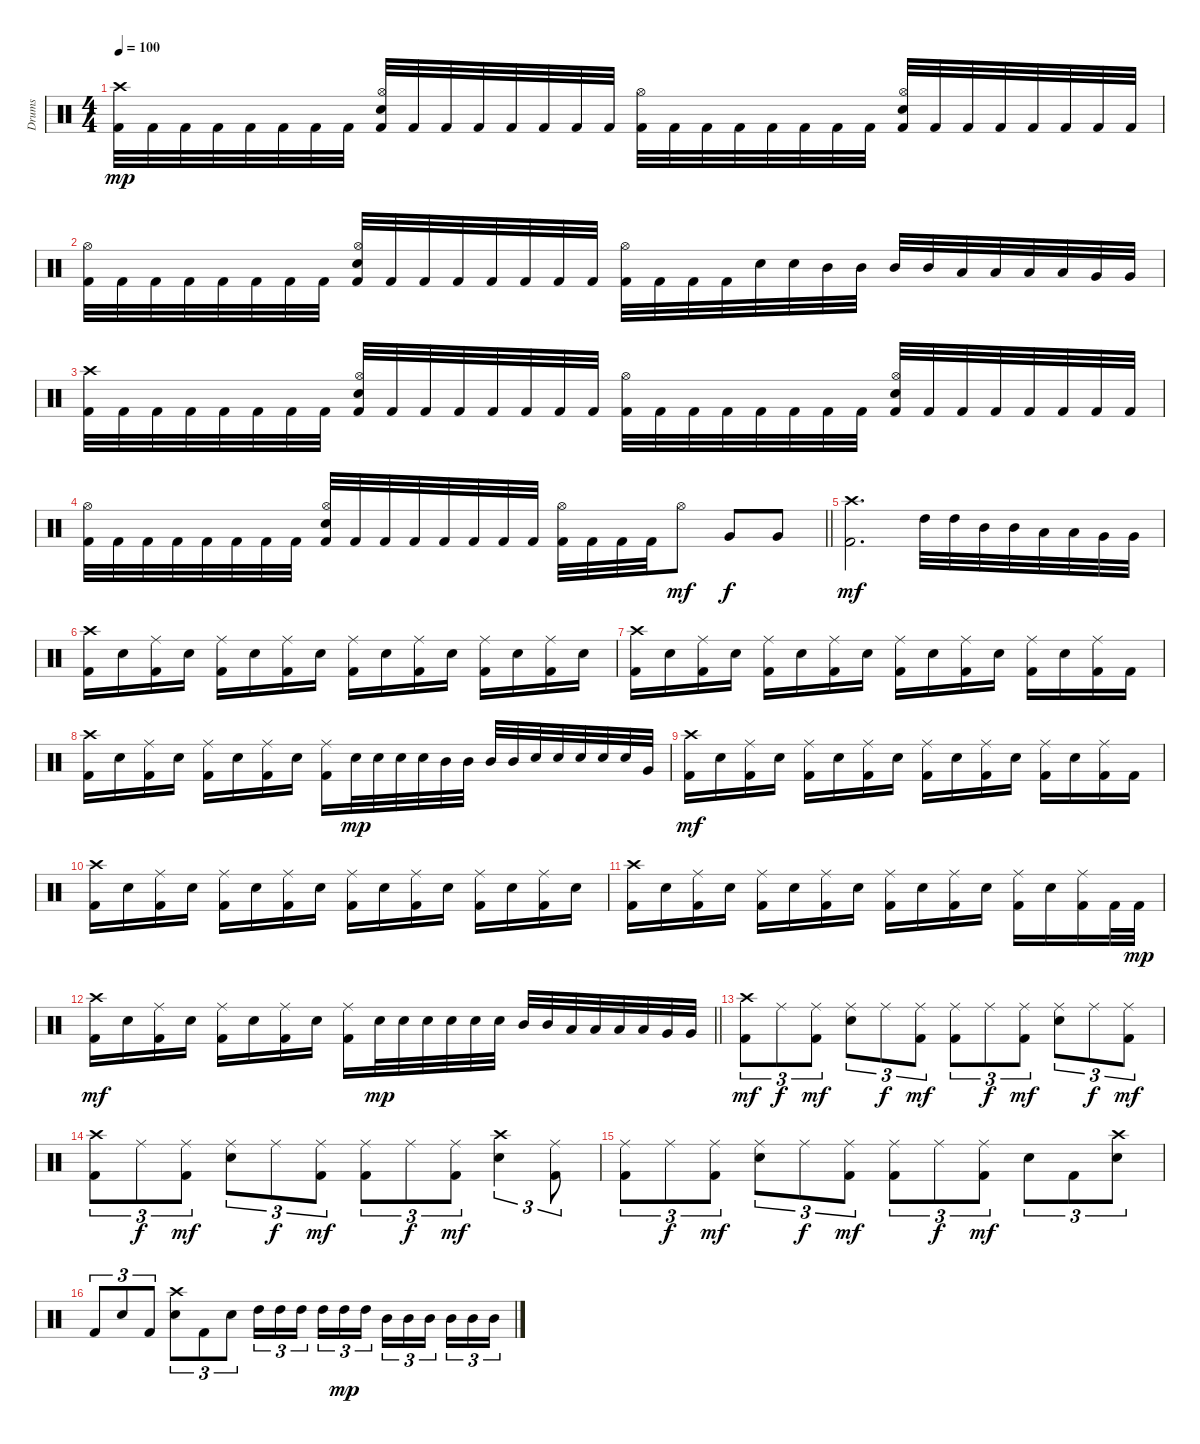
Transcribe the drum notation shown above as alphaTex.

\track ("Drums" "Drums") {instrument percussion}
\staff {score}
\articulation defaults
\ts (4 4)
\tempo 100
\clef neutral
\ks c
("Crash high (hit)" "Kick (hit) 2").32{dy mp} "Kick (hit) 2".32 "Kick (hit) 2".32 "Kick (hit) 2".32 "Kick (hit) 2".32 "Kick (hit) 2".32 "Kick (hit) 2".32 "Kick (hit) 2".32 ("Hi-Hat (open)" "Snare (hit) 2" "Kick (hit) 2").32 "Kick (hit) 2".32 "Kick (hit) 2".32 "Kick (hit) 2".32 "Kick (hit) 2".32 "Kick (hit) 2".32 "Kick (hit) 2".32 "Kick (hit) 2".32 ("Hi-Hat (open)" "Kick (hit) 2").32 "Kick (hit) 2".32 "Kick (hit) 2".32 "Kick (hit) 2".32 "Kick (hit) 2".32 "Kick (hit) 2".32 "Kick (hit) 2".32 "Kick (hit) 2".32 ("Hi-Hat (open)" "Snare (hit) 2" "Kick (hit) 2").32 "Kick (hit) 2".32 "Kick (hit) 2".32 "Kick (hit) 2".32 "Kick (hit) 2".32 "Kick (hit) 2".32 "Kick (hit) 2".32 "Kick (hit) 2".32 |
("Hi-Hat (open)" "Kick (hit) 2").32 "Kick (hit) 2".32 "Kick (hit) 2".32 "Kick (hit) 2".32 "Kick (hit) 2".32 "Kick (hit) 2".32 "Kick (hit) 2".32 "Kick (hit) 2".32 ("Hi-Hat (open)" "Snare (hit) 2" "Kick (hit) 2").32 "Kick (hit) 2".32 "Kick (hit) 2".32 "Kick (hit) 2".32 "Kick (hit) 2".32 "Kick (hit) 2".32 "Kick (hit) 2".32 "Kick (hit) 2".32 ("Hi-Hat (open)" "Kick (hit) 2").32 "Kick (hit) 2".32 "Kick (hit) 2".32 "Kick (hit) 2".32 "Snare (hit) 2".32 "Snare (hit) 2".32 "Mid Tom (hit)".32 "Mid Tom (hit)".32 "Mid Tom (hit)".32 "Mid Tom (hit)".32 "Low Tom (hit)".32 "Low Tom (hit)".32 "Low Tom (hit)".32 "Low Tom (hit)".32 "Very Low Tom (hit)".32 "Very Low Tom (hit)".32 |
("Crash high (hit)" "Kick (hit) 2").32 "Kick (hit) 2".32 "Kick (hit) 2".32 "Kick (hit) 2".32 "Kick (hit) 2".32 "Kick (hit) 2".32 "Kick (hit) 2".32 "Kick (hit) 2".32 ("Hi-Hat (open)" "Snare (hit) 2" "Kick (hit) 2").32 "Kick (hit) 2".32 "Kick (hit) 2".32 "Kick (hit) 2".32 "Kick (hit) 2".32 "Kick (hit) 2".32 "Kick (hit) 2".32 "Kick (hit) 2".32 ("Hi-Hat (open)" "Kick (hit) 2").32 "Kick (hit) 2".32 "Kick (hit) 2".32 "Kick (hit) 2".32 "Kick (hit) 2".32 "Kick (hit) 2".32 "Kick (hit) 2".32 "Kick (hit) 2".32 ("Hi-Hat (open)" "Snare (hit) 2" "Kick (hit) 2").32 "Kick (hit) 2".32 "Kick (hit) 2".32 "Kick (hit) 2".32 "Kick (hit) 2".32 "Kick (hit) 2".32 "Kick (hit) 2".32 "Kick (hit) 2".32 |
\barLineRight lightlight
("Hi-Hat (open)" "Kick (hit) 2").32 "Kick (hit) 2".32 "Kick (hit) 2".32 "Kick (hit) 2".32 "Kick (hit) 2".32 "Kick (hit) 2".32 "Kick (hit) 2".32 "Kick (hit) 2".32 ("Hi-Hat (open)" "Snare (hit) 2" "Kick (hit) 2").32 "Kick (hit) 2".32 "Kick (hit) 2".32 "Kick (hit) 2".32 "Kick (hit) 2".32 "Kick (hit) 2".32 "Kick (hit) 2".32 "Kick (hit) 2".32 ("Hi-Hat (open)" "Kick (hit) 2").32 "Kick (hit) 2".32 "Kick (hit) 2".32 "Kick (hit) 2".32 "Hi-Hat (open)".8{dy mf} "Very Low Tom (hit)".8{dy f} "Very Low Tom (hit)".8 |
("Crash high (hit)" "Kick (hit) 2").2{d dy mf} "High Tom (hit)".32 "High Tom (hit)".32 "Mid Tom (hit)".32 "Mid Tom (hit)".32 "Low Tom (hit)".32 "Low Tom (hit)".32 "Very Low Tom (hit)".32 "Very Low Tom (hit)".32 |
("Crash high (hit)" "Kick (hit) 2").16 "Snare (hit) 2".16 ("Ride (middle)" "Kick (hit) 2").16 "Snare (hit) 2".16 ("Ride (middle)" "Kick (hit) 2").16 "Snare (hit) 2".16 ("Ride (middle)" "Kick (hit) 2").16 "Snare (hit) 2".16 ("Ride (middle)" "Kick (hit) 2").16 "Snare (hit) 2".16 ("Ride (middle)" "Kick (hit) 2").16 "Snare (hit) 2".16 ("Ride (middle)" "Kick (hit) 2").16 "Snare (hit) 2".16 ("Ride (middle)" "Kick (hit) 2").16 "Snare (hit) 2".16 |
("Crash high (hit)" "Kick (hit) 2").16 "Snare (hit) 2".16 ("Ride (middle)" "Kick (hit) 2").16 "Snare (hit) 2".16 ("Ride (middle)" "Kick (hit) 2").16 "Snare (hit) 2".16 ("Ride (middle)" "Kick (hit) 2").16 "Snare (hit) 2".16 ("Ride (middle)" "Kick (hit) 2").16 "Snare (hit) 2".16 ("Ride (middle)" "Kick (hit) 2").16 "Snare (hit) 2".16 ("Ride (middle)" "Kick (hit) 2").16 "Snare (hit) 2".16 ("Ride (middle)" "Kick (hit) 2").16 "Kick (hit) 2".16 |
("Crash high (hit)" "Kick (hit) 2").16 "Snare (hit) 2".16 ("Ride (middle)" "Kick (hit) 2").16 "Snare (hit) 2".16 ("Ride (middle)" "Kick (hit) 2").16 "Snare (hit) 2".16 ("Ride (middle)" "Kick (hit) 2").16 "Snare (hit) 2".16 ("Ride (middle)" "Kick (hit) 2").16 "Snare (hit) 2".32{dy mp} "Snare (hit) 2".32 "Snare (hit) 2".32 "Snare (hit) 2".32 "Mid Tom (hit)".32 "Mid Tom (hit)".32 "Mid Tom (hit)".32 "Mid Tom (hit)".32 "Snare (hit) 2".32 "Snare (hit) 2".32 "Snare (hit) 2".32 "Snare (hit) 2".32 "Snare (hit) 2".32 "Very Low Tom (hit)".32 |
("Crash high (hit)" "Kick (hit) 2").16{dy mf} "Snare (hit) 2".16 ("Ride (middle)" "Kick (hit) 2").16 "Snare (hit) 2".16 ("Ride (middle)" "Kick (hit) 2").16 "Snare (hit) 2".16 ("Ride (middle)" "Kick (hit) 2").16 "Snare (hit) 2".16 ("Ride (middle)" "Kick (hit) 2").16 "Snare (hit) 2".16 ("Ride (middle)" "Kick (hit) 2").16 "Snare (hit) 2".16 ("Ride (middle)" "Kick (hit) 2").16 "Snare (hit) 2".16 ("Ride (middle)" "Kick (hit) 2").16 "Kick (hit) 2".16 |
("Crash high (hit)" "Kick (hit) 2").16 "Snare (hit) 2".16 ("Ride (middle)" "Kick (hit) 2").16 "Snare (hit) 2".16 ("Ride (middle)" "Kick (hit) 2").16 "Snare (hit) 2".16 ("Ride (middle)" "Kick (hit) 2").16 "Snare (hit) 2".16 ("Ride (middle)" "Kick (hit) 2").16 "Snare (hit) 2".16 ("Ride (middle)" "Kick (hit) 2").16 "Snare (hit) 2".16 ("Ride (middle)" "Kick (hit) 2").16 "Snare (hit) 2".16 ("Ride (middle)" "Kick (hit) 2").16 "Snare (hit) 2".16 |
("Crash high (hit)" "Kick (hit) 2").16 "Snare (hit) 2".16 ("Ride (middle)" "Kick (hit) 2").16 "Snare (hit) 2".16 ("Ride (middle)" "Kick (hit) 2").16 "Snare (hit) 2".16 ("Ride (middle)" "Kick (hit) 2").16 "Snare (hit) 2".16 ("Ride (middle)" "Kick (hit) 2").16 "Snare (hit) 2".16 ("Ride (middle)" "Kick (hit) 2").16 "Snare (hit) 2".16 ("Ride (middle)" "Kick (hit) 2").16 "Snare (hit) 2".16 ("Ride (middle)" "Kick (hit) 2").16 "Kick (hit) 2".32 "Kick (hit) 2".32{dy mp} |
\barLineRight lightlight
("Crash high (hit)" "Kick (hit) 2").16{dy mf} "Snare (hit) 2".16 ("Ride (middle)" "Kick (hit) 2").16 "Snare (hit) 2".16 ("Ride (middle)" "Kick (hit) 2").16 "Snare (hit) 2".16 ("Ride (middle)" "Kick (hit) 2").16 "Snare (hit) 2".16 ("Ride (middle)" "Kick (hit) 2").16 "Snare (hit) 2".32{dy mp} "Snare (hit) 2".32 "Snare (hit) 2".32 "Snare (hit) 2".32 "Snare (hit) 2".32 "Snare (hit) 2".32 "Mid Tom (hit)".32 "Mid Tom (hit)".32 "Low Tom (hit)".32 "Low Tom (hit)".32 "Low Tom (hit)".32 "Low Tom (hit)".32 "Very Low Tom (hit)".32 "Very Low Tom (hit)".32 |
("Crash high (hit)" "Kick (hit) 2").8{tu (3 2) dy mf} "Ride (middle)".8{tu (3 2) dy f} ("Ride (middle)" "Kick (hit) 2").8{tu (3 2) dy mf} ("Ride (middle)" "Snare (hit) 2").8{tu (3 2)} "Ride (middle)".8{tu (3 2) dy f} ("Ride (middle)" "Kick (hit) 2").8{tu (3 2) dy mf} ("Ride (middle)" "Kick (hit) 2").8{tu (3 2)} "Ride (middle)".8{tu (3 2) dy f} ("Ride (middle)" "Kick (hit) 2").8{tu (3 2) dy mf} ("Ride (middle)" "Snare (hit) 2").8{tu (3 2)} "Ride (middle)".8{tu (3 2) dy f} ("Ride (middle)" "Kick (hit) 2").8{tu (3 2) dy mf} |
("Crash high (hit)" "Kick (hit) 2").8{tu (3 2)} "Ride (middle)".8{tu (3 2) dy f} ("Ride (middle)" "Kick (hit) 2").8{tu (3 2) dy mf} ("Ride (middle)" "Snare (hit) 2").8{tu (3 2)} "Ride (middle)".8{tu (3 2) dy f} ("Ride (middle)" "Kick (hit) 2").8{tu (3 2) dy mf} ("Ride (middle)" "Kick (hit) 2").8{tu (3 2)} "Ride (middle)".8{tu (3 2) dy f} ("Ride (middle)" "Kick (hit) 2").8{tu (3 2) dy mf} ("Crash high (hit)" "Snare (hit) 2").4{tu (3 2)} ("Ride (middle)" "Kick (hit) 2").8{tu (3 2)} |
("Ride (middle)" "Kick (hit) 2").8{tu (3 2)} "Ride (middle)".8{tu (3 2) dy f} ("Ride (middle)" "Kick (hit) 2").8{tu (3 2) dy mf} ("Ride (middle)" "Snare (hit) 2").8{tu (3 2)} "Ride (middle)".8{tu (3 2) dy f} ("Ride (middle)" "Kick (hit) 2").8{tu (3 2) dy mf} ("Ride (middle)" "Kick (hit) 2").8{tu (3 2)} "Ride (middle)".8{tu (3 2) dy f} ("Ride (middle)" "Kick (hit) 2").8{tu (3 2) dy mf} "Snare (hit) 2".8{tu (3 2)} "Kick (hit) 2".8{tu (3 2)} ("Crash high (hit)" "Snare (hit) 2").8{tu (3 2)} |
"Kick (hit) 2".8{tu (3 2)} "Snare (hit) 2".8{tu (3 2)} "Kick (hit) 2".8{tu (3 2)} ("Crash high (hit)" "Snare (hit) 2").8{tu (3 2)} "Kick (hit) 2".8{tu (3 2)} "Snare (hit) 2".8{tu (3 2)} "High Tom (hit)".16{tu (3 2)} "High Tom (hit)".16{tu (3 2)} "High Tom (hit)".16{tu (3 2) beam splitsecondary} "High Tom (hit)".16{tu (3 2)} "High Tom (hit)".16{tu (3 2) dy mp} "High Tom (hit)".16{tu (3 2)} "Mid Tom (hit)".16{tu (3 2)} "Mid Tom (hit)".16{tu (3 2)} "Mid Tom (hit)".16{tu (3 2) beam splitsecondary} "Mid Tom (hit)".16{tu (3 2)} "Mid Tom (hit)".16{tu (3 2)} "Mid Tom (hit)".16{tu (3 2)}
